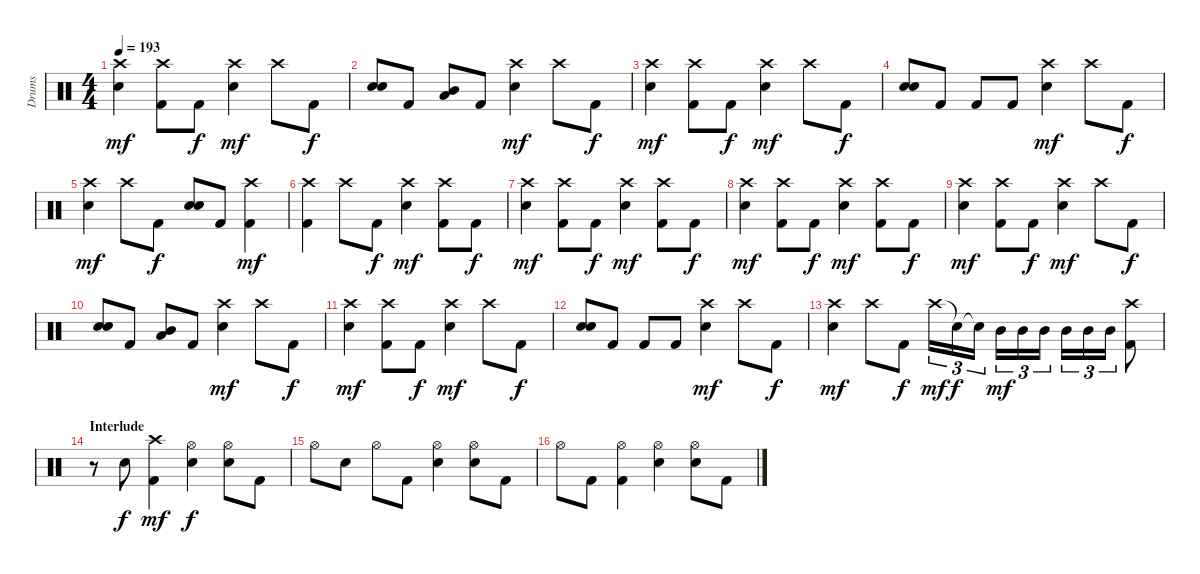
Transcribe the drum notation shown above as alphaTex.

\track ("Drums" "Drums") {instrument percussion}
\staff {score}
\articulation defaults
\ts (4 4)
\tempo 193
\clef neutral
\ks c
("Crash high (hit)" "Electric Snare (hit)").4{dy mf} ("Crash high (hit)" "Kick (hit) 2").8 "Kick (hit) 2".8{dy f} ("Crash high (hit)" "Electric Snare (hit)").4{dy mf} "Crash high (hit)".8 "Kick (hit) 2".8{dy f} |
("Electric Snare (hit)" "Electric Snare (hit)").8{bd 120} "Kick (hit) 2".8 ("Mid Tom (hit)" "Low Tom (hit)").8 "Kick (hit) 2".8 ("Crash high (hit)" "Electric Snare (hit)").4{dy mf} "Crash high (hit)".8 "Kick (hit) 2".8{dy f} |
("Crash high (hit)" "Electric Snare (hit)").4{dy mf} ("Crash high (hit)" "Kick (hit) 2").8 "Kick (hit) 2".8{dy f} ("Crash high (hit)" "Electric Snare (hit)").4{dy mf} "Crash high (hit)".8 "Kick (hit) 2".8{dy f} |
("Electric Snare (hit)" "Electric Snare (hit)").8{bd 120} "Kick (hit) 2".8 "Kick (hit) 2".8 "Kick (hit) 2".8 ("Crash high (hit)" "Electric Snare (hit)").4{dy mf} "Crash high (hit)".8 "Kick (hit) 2".8{dy f} |
("Crash high (hit)" "Electric Snare (hit)").4{dy mf} "Crash high (hit)".8 "Kick (hit) 2".8{dy f} ("Electric Snare (hit)" "Electric Snare (hit)").8{bd 120} "Kick (hit) 2".8 ("Crash high (hit)" "Kick (hit) 2").4{dy mf} |
("Crash high (hit)" "Kick (hit) 2").4 "Crash high (hit)".8 "Kick (hit) 2".8{dy f} ("Crash high (hit)" "Electric Snare (hit)").4{dy mf} ("Crash high (hit)" "Kick (hit) 2").8 "Kick (hit) 2".8{dy f} |
("Crash high (hit)" "Electric Snare (hit)").4{dy mf} ("Crash high (hit)" "Kick (hit) 2").8 "Kick (hit) 2".8{dy f} ("Crash high (hit)" "Electric Snare (hit)").4{dy mf} ("Crash high (hit)" "Kick (hit) 2").8 "Kick (hit) 2".8{dy f} |
("Crash high (hit)" "Electric Snare (hit)").4{dy mf} ("Crash high (hit)" "Kick (hit) 2").8 "Kick (hit) 2".8{dy f} ("Crash high (hit)" "Electric Snare (hit)").4{dy mf} ("Crash high (hit)" "Kick (hit) 2").8 "Kick (hit) 2".8{dy f} |
("Crash high (hit)" "Electric Snare (hit)").4{dy mf} ("Crash high (hit)" "Kick (hit) 2").8 "Kick (hit) 2".8{dy f} ("Crash high (hit)" "Electric Snare (hit)").4{dy mf} "Crash high (hit)".8 "Kick (hit) 2".8{dy f} |
("Electric Snare (hit)" "Electric Snare (hit)").8{bd 120} "Kick (hit) 2".8 ("Mid Tom (hit)" "Low Tom (hit)").8 "Kick (hit) 2".8 ("Crash high (hit)" "Electric Snare (hit)").4{dy mf} "Crash high (hit)".8 "Kick (hit) 2".8{dy f} |
("Crash high (hit)" "Electric Snare (hit)").4{dy mf} ("Crash high (hit)" "Kick (hit) 2").8 "Kick (hit) 2".8{dy f} ("Crash high (hit)" "Electric Snare (hit)").4{dy mf} "Crash high (hit)".8 "Kick (hit) 2".8{dy f} |
("Electric Snare (hit)" "Electric Snare (hit)").8{bd 120} "Kick (hit) 2".8 "Kick (hit) 2".8 "Kick (hit) 2".8 ("Crash high (hit)" "Electric Snare (hit)").4{dy mf} "Crash high (hit)".8 "Kick (hit) 2".8{dy f} |
("Crash high (hit)" "Electric Snare (hit)").4{dy mf} "Crash high (hit)".8 "Kick (hit) 2".8{dy f} "Crash high (hit)".16{tu (3 2) dy mf} "Snare (hit)"{t}.16{tu (3 2) dy f} "Snare (hit)"{t}.16{tu (3 2)} "Mid Tom (hit)".16{tu (3 2) dy mf} "Mid Tom (hit)".16{tu (3 2)} "Mid Tom (hit)".16{tu (3 2)} "Mid Tom (hit)".16{tu (3 2)} "Mid Tom (hit)".16{tu (3 2)} "Mid Tom (hit)".16{tu (3 2)} ("Crash high (hit)" "Kick (hit) 2").8 |
\section ("" "Interlude")
r.8 "Electric Snare (hit)".8{dy f} ("Crash high (hit)" "Kick (hit) 2").4{dy mf} ("Hi-Hat (open)" "Electric Snare (hit)").4{dy f} ("Hi-Hat (open)" "Electric Snare (hit)").8 "Kick (hit) 2".8 |
"Hi-Hat (open)".8 "Electric Snare (hit)".8 "Hi-Hat (open)".8 "Kick (hit) 2".8 ("Hi-Hat (open)" "Electric Snare (hit)").4 ("Hi-Hat (open)" "Electric Snare (hit)").8 "Kick (hit) 2".8 |
"Hi-Hat (open)".8 "Kick (hit) 2".8 ("Hi-Hat (open)" "Kick (hit) 2").4 ("Hi-Hat (open)" "Electric Snare (hit)").4 ("Hi-Hat (open)" "Electric Snare (hit)").8 "Kick (hit) 2".8
